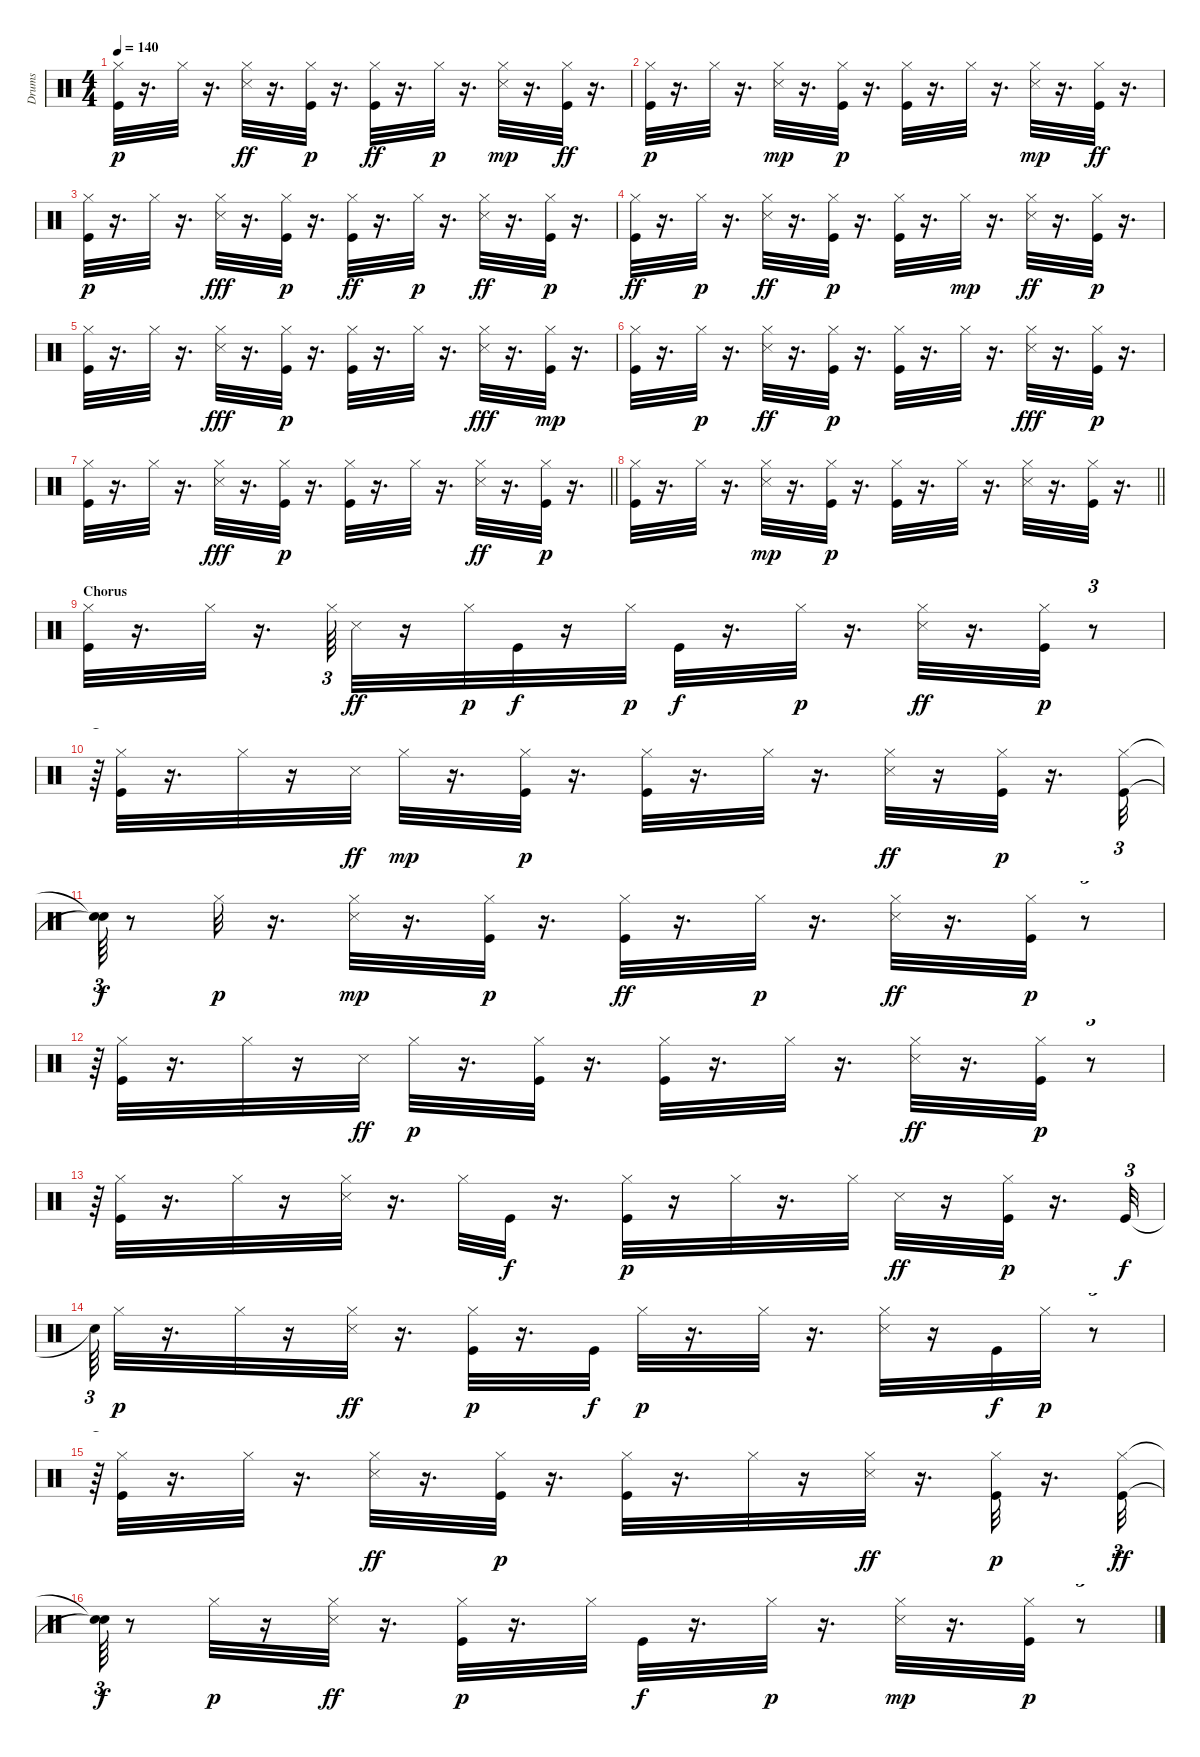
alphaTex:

\track ("Drums" "Drums") {instrument percussion}
\staff {score}
\articulation defaults
\ts (4 4)
\tempo 140
\clef neutral
\ks c
("Hi-Hat (closed)" "Kick (hit)").32{dy p} r.16{d} "Hi-Hat (closed)".32 r.16{d} ("Hi-Hat (closed)" "Snare (side stick) 3").32{dy ff} r.16{d} ("Hi-Hat (closed)" "Kick (hit)").32{dy p} r.16{d} ("Hi-Hat (closed)" "Kick (hit)").32{dy ff} r.16{d} "Hi-Hat (closed)".32{dy p} r.16{d} ("Snare (side stick) 3" "Hi-Hat (closed)").32{dy mp} r.16{d} ("Hi-Hat (closed)" "Kick (hit)").32{dy ff} r.16{d} |
("Kick (hit)" "Hi-Hat (closed)").32{dy p} r.16{d} "Hi-Hat (closed)".32 r.16{d} ("Snare (side stick) 3" "Hi-Hat (closed)").32{dy mp} r.16{d} ("Kick (hit)" "Hi-Hat (closed)").32{dy p} r.16{d} ("Kick (hit)" "Hi-Hat (closed)").32 r.16{d} "Hi-Hat (closed)".32 r.16{d} ("Snare (side stick) 3" "Hi-Hat (closed)").32{dy mp} r.16{d} ("Hi-Hat (closed)" "Kick (hit)").32{dy ff} r.16{d} |
("Kick (hit)" "Hi-Hat (closed)").32{dy p} r.16{d} "Hi-Hat (closed)".32 r.16{d} ("Hi-Hat (closed)" "Snare (side stick) 3").32{dy fff} r.16{d} ("Hi-Hat (closed)" "Kick (hit)").32{dy p} r.16{d} ("Hi-Hat (closed)" "Kick (hit)").32{dy ff} r.16{d} "Hi-Hat (closed)".32{dy p} r.16{d} ("Hi-Hat (closed)" "Snare (side stick) 3").32{dy ff} r.16{d} ("Hi-Hat (closed)" "Kick (hit)").32{dy p} r.16{d} |
("Hi-Hat (closed)" "Kick (hit)").32{dy ff} r.16{d} "Hi-Hat (closed)".32{dy p} r.16{d} ("Hi-Hat (closed)" "Snare (side stick) 3").32{dy ff} r.16{d} ("Hi-Hat (closed)" "Kick (hit)").32{dy p} r.16{d} ("Hi-Hat (closed)" "Kick (hit)").32 r.16{d} "Hi-Hat (closed)".32{dy mp} r.16{d} ("Hi-Hat (closed)" "Snare (side stick) 3").32{dy ff} r.16{d} ("Hi-Hat (closed)" "Kick (hit)").32{dy p} r.16{d} |
("Kick (hit)" "Hi-Hat (closed)").32 r.16{d} "Hi-Hat (closed)".32 r.16{d} ("Hi-Hat (closed)" "Snare (side stick) 3").32{dy fff} r.16{d} ("Kick (hit)" "Hi-Hat (closed)").32{dy p} r.16{d} ("Kick (hit)" "Hi-Hat (closed)").32 r.16{d} "Hi-Hat (closed)".32 r.16{d} ("Hi-Hat (closed)" "Snare (side stick) 3").32{dy fff} r.16{d} ("Hi-Hat (closed)" "Kick (hit)").32{dy mp} r.16{d} |
("Kick (hit)" "Hi-Hat (closed)").32 r.16{d} "Hi-Hat (closed)".32{dy p} r.16{d} ("Hi-Hat (closed)" "Snare (side stick) 3").32{dy ff} r.16{d} ("Hi-Hat (closed)" "Kick (hit)").32{dy p} r.16{d} ("Hi-Hat (closed)" "Kick (hit)").32 r.16{d} "Hi-Hat (closed)".32 r.16{d} ("Hi-Hat (closed)" "Snare (side stick) 3").32{dy fff} r.16{d} ("Hi-Hat (closed)" "Kick (hit)").32{dy p} r.16{d} |
\barLineRight lightlight
("Hi-Hat (closed)" "Kick (hit)").32 r.16{d} "Hi-Hat (closed)".32 r.16{d} ("Hi-Hat (closed)" "Snare (side stick) 3").32{dy fff} r.16{d} ("Kick (hit)" "Hi-Hat (closed)").32{dy p} r.16{d} ("Kick (hit)" "Hi-Hat (closed)").32 r.16{d} "Hi-Hat (closed)".32 r.16{d} ("Hi-Hat (closed)" "Snare (side stick) 3").32{dy ff} r.16{d} ("Hi-Hat (closed)" "Kick (hit)").32{dy p} r.16{d} |
\section ("" "")
\barLineRight lightlight
("Hi-Hat (closed)" "Kick (hit)").32 r.16{d} "Hi-Hat (closed)".32 r.16{d} ("Snare (side stick) 3" "Hi-Hat (closed)").32{dy mp} r.16{d} ("Hi-Hat (closed)" "Kick (hit)").32{dy p} r.16{d} ("Kick (hit)" "Hi-Hat (closed)").32 r.16{d} "Hi-Hat (closed)".32 r.16{d} ("Snare (side stick) 3" "Hi-Hat (closed)").32 r.16{d} ("Hi-Hat (closed)" "Kick (hit)").32 r.16{d} |
\section ("" "Chorus")
("Hi-Hat (closed)" "Kick (hit)").32 r.16{d} "Hi-Hat (closed)".32 r.16{d} "Hi-Hat (closed)".64{tu (3 2)} "Snare (side stick) 3".32{dy ff} r.16 "Hi-Hat (closed)".32{dy p} "Kick (hit)".32{dy f} r.16 "Hi-Hat (closed)".32{dy p} "Kick (hit)".32{dy f} r.16{d} "Hi-Hat (closed)".32{dy p} r.16{d} ("Hi-Hat (closed)" "Snare (side stick) 3").32{dy ff} r.16{d} ("Kick (hit)" "Hi-Hat (closed)").32{dy p} r.8{tu (3 2)} |
r.64{tu (3 2)} ("Kick (hit)" "Hi-Hat (closed)").32 r.16{d} "Hi-Hat (closed)".32 r.16 "Snare (side stick) 3".32{dy ff} "Hi-Hat (closed)".32{dy mp} r.16{d} ("Kick (hit)" "Hi-Hat (closed)").32{dy p} r.16{d} ("Kick (hit)" "Hi-Hat (closed)").32 r.16{d} "Hi-Hat (closed)".32 r.16{d} ("Hi-Hat (closed)" "Snare (side stick) 3").32{dy ff} r.16 ("Hi-Hat (closed)" "Kick (hit)").32{dy p} r.16{d} ("Kick (hit)" "Hi-Hat (closed)").32{tu (3 2)} |
("Snare (hit)"{t} "Snare (hit)"{t}).64{tu (3 2) dy f} r.8 "Hi-Hat (closed)".32{dy p} r.16{d} ("Snare (side stick) 3" "Hi-Hat (closed)").32{dy mp} r.16{d} ("Kick (hit)" "Hi-Hat (closed)").32{dy p} r.16{d} ("Hi-Hat (closed)" "Kick (hit)").32{dy ff} r.16{d} "Hi-Hat (closed)".32{dy p} r.16{d} ("Hi-Hat (closed)" "Snare (side stick) 3").32{dy ff} r.16{d} ("Hi-Hat (closed)" "Kick (hit)").32{dy p} r.8{tu (3 2)} |
r.64{tu (3 2)} ("Kick (hit)" "Hi-Hat (closed)").32 r.16{d} "Hi-Hat (closed)".32 r.16 "Snare (side stick) 3".32{dy ff} "Hi-Hat (closed)".32{dy p} r.16{d} ("Kick (hit)" "Hi-Hat (closed)").32 r.16{d} ("Hi-Hat (closed)" "Kick (hit)").32 r.16{d} "Hi-Hat (closed)".32 r.16{d} ("Hi-Hat (closed)" "Snare (side stick) 3").32{dy ff} r.16{d} ("Hi-Hat (closed)" "Kick (hit)").32{dy p} r.8{tu (3 2)} |
r.64{tu (3 2)} ("Hi-Hat (closed)" "Kick (hit)").32 r.16{d} "Hi-Hat (closed)".32 r.16 ("Snare (side stick) 3" "Hi-Hat (closed)").32 r.16{d} "Hi-Hat (closed)".32 "Kick (hit)".32{dy f} r.16{d} ("Hi-Hat (closed)" "Kick (hit)").32{dy p} r.16 "Hi-Hat (closed)".32 r.16{d} "Hi-Hat (closed)".32 "Snare (side stick) 3".32{dy ff} r.16 ("Kick (hit)" "Hi-Hat (closed)").32{dy p} r.16{d} "Kick (hit)".32{tu (3 2) dy f} |
"Snare (hit)"{t}.64{tu (3 2)} "Hi-Hat (closed)".32{dy p} r.16{d} "Hi-Hat (closed)".32 r.16 ("Hi-Hat (closed)" "Snare (side stick) 3").32{dy ff} r.16{d} ("Kick (hit)" "Hi-Hat (closed)").32{dy p} r.16{d} "Kick (hit)".32{dy f} "Hi-Hat (closed)".32{dy p} r.16{d} "Hi-Hat (closed)".32 r.16{d} ("Snare (side stick) 3" "Hi-Hat (closed)").32 r.16 "Kick (hit)".32{dy f} "Hi-Hat (closed)".32{dy p} r.8{tu (3 2)} |
r.64{tu (3 2)} ("Kick (hit)" "Hi-Hat (closed)").32 r.16{d} "Hi-Hat (closed)".32 r.16{d} ("Hi-Hat (closed)" "Snare (side stick) 3").32{dy ff} r.16{d} ("Kick (hit)" "Hi-Hat (closed)").32{dy p} r.16{d} ("Hi-Hat (closed)" "Kick (hit)").32 r.16{d} "Hi-Hat (closed)".32 r.16 ("Hi-Hat (closed)" "Snare (side stick) 3").32{dy ff} r.16{d} ("Hi-Hat (closed)" "Kick (hit)").32{dy p} r.16{d} ("Hi-Hat (closed)" "Kick (hit)").32{tu (3 2) dy ff} |
("Snare (hit)"{t} "Snare (hit)"{t}).64{tu (3 2) dy f} r.8 "Hi-Hat (closed)".32{dy p} r.16 ("Hi-Hat (closed)" "Snare (side stick) 3").32{dy ff} r.16{d} ("Hi-Hat (closed)" "Kick (hit)").32{dy p} r.16{d} "Hi-Hat (closed)".32 "Kick (hit)".32{dy f} r.16{d} "Hi-Hat (closed)".32{dy p} r.16{d} ("Snare (side stick) 3" "Hi-Hat (closed)").32{dy mp} r.16{d} ("Hi-Hat (closed)" "Kick (hit)").32{dy p} r.8{tu (3 2)}
